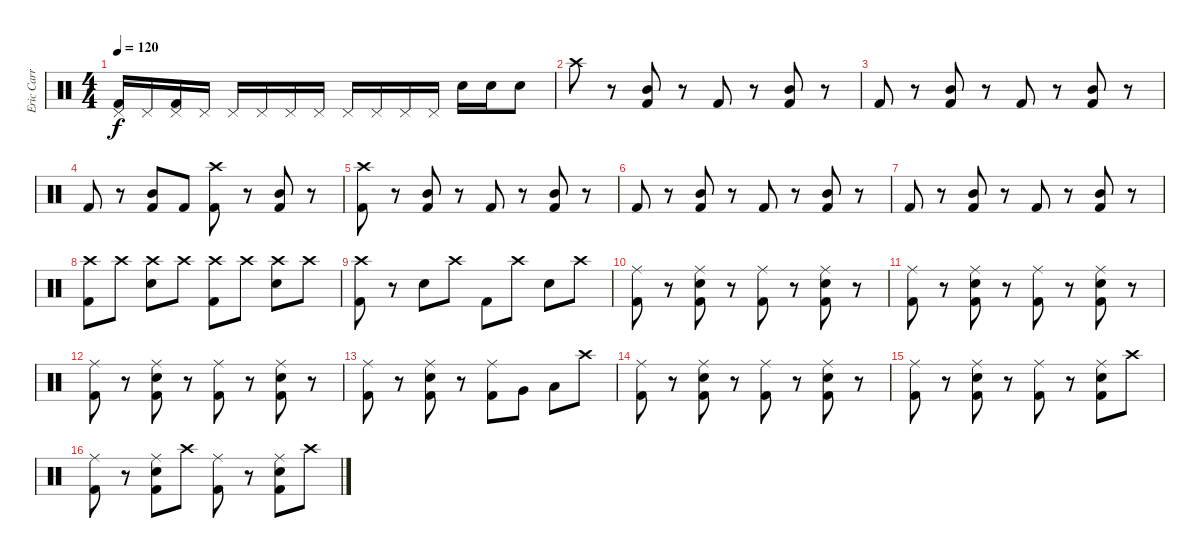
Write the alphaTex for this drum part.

\track ("Eric Carr" "Eric Carr") {instrument percussion}
\staff {score}
\articulation defaults
\ts (4 4)
\tempo 120
\clef neutral
\ks c
("Kick (hit) 2" "Pedal Hi-Hat (hit)").16{dy f} "Pedal Hi-Hat (hit)".16 ("Kick (hit) 2" "Pedal Hi-Hat (hit)").16 "Pedal Hi-Hat (hit)".16 "Pedal Hi-Hat (hit)".16 "Pedal Hi-Hat (hit)".16 "Pedal Hi-Hat (hit)".16 "Pedal Hi-Hat (hit)".16 "Pedal Hi-Hat (hit)".16 "Pedal Hi-Hat (hit)".16 "Pedal Hi-Hat (hit)".16 "Pedal Hi-Hat (hit)".16 "Snare (hit) 2".16 "Snare (hit) 2".16 "Snare (hit) 2".8 |
"Crash high (hit)".8 r.8 ("Kick (hit) 2" "Mid Tom (hit)").8 r.8 "Kick (hit) 2".8 r.8 ("Kick (hit) 2" "Mid Tom (hit)").8 r.8 |
"Kick (hit) 2".8 r.8 ("Kick (hit) 2" "Mid Tom (hit)").8 r.8 "Kick (hit) 2".8 r.8 ("Kick (hit) 2" "Mid Tom (hit)").8 r.8 |
"Kick (hit) 2".8 r.8 ("Kick (hit) 2" "Mid Tom (hit)").8 "Kick (hit) 2".8 ("Kick (hit) 2" "Crash high (hit)").8 r.8 ("Kick (hit) 2" "Mid Tom (hit)").8 r.8 |
("Crash high (hit)" "Kick (hit) 2").8 r.8 ("Kick (hit) 2" "Mid Tom (hit)").8 r.8 "Kick (hit) 2".8 r.8 ("Kick (hit) 2" "Mid Tom (hit)").8 r.8 |
"Kick (hit) 2".8 r.8 ("Kick (hit) 2" "Mid Tom (hit)").8 r.8 "Kick (hit) 2".8 r.8 ("Kick (hit) 2" "Mid Tom (hit)").8 r.8 |
"Kick (hit) 2".8 r.8 ("Kick (hit) 2" "Mid Tom (hit)").8 r.8 "Kick (hit) 2".8 r.8 ("Kick (hit) 2" "Mid Tom (hit)").8 r.8 |
("Kick (hit) 2" "Crash high (hit)").8 "Crash high (hit)".8 ("Snare (hit) 2" "Crash high (hit)").8 "Crash high (hit)".8 ("Kick (hit) 2" "Crash high (hit)").8 "Crash high (hit)".8 ("Snare (hit) 2" "Crash high (hit)").8 "Crash high (hit)".8 |
("Kick (hit) 2" "Crash high (hit)").8 r.8 "Snare (hit) 2".8 "Crash high (hit)".8 "Kick (hit) 2".8 "Crash high (hit)".8 "Snare (hit) 2".8 "Crash high (hit)".8 |
("Kick (hit) 2" "Ride (middle)").8 r.8 ("Kick (hit) 2" "Ride (middle)" "Snare (hit) 2").8 r.8 ("Kick (hit) 2" "Ride (middle)").8 r.8 ("Kick (hit) 2" "Ride (middle)" "Snare (hit) 2").8 r.8 |
("Kick (hit) 2" "Ride (middle)").8 r.8 ("Kick (hit) 2" "Ride (middle)" "Snare (hit) 2").8 r.8 ("Kick (hit) 2" "Ride (middle)").8 r.8 ("Kick (hit) 2" "Ride (middle)" "Snare (hit) 2").8 r.8 |
("Kick (hit) 2" "Ride (middle)").8 r.8 ("Kick (hit) 2" "Ride (middle)" "Snare (hit) 2").8 r.8 ("Kick (hit) 2" "Ride (middle)").8 r.8 ("Kick (hit) 2" "Ride (middle)" "Snare (hit) 2").8 r.8 |
("Kick (hit) 2" "Ride (middle)").8 r.8 ("Kick (hit) 2" "Ride (middle)" "Snare (hit) 2").8 r.8 ("Kick (hit) 2" "Ride (middle)").8 "Very Low Tom (hit)".8 "Low Tom (hit)".8 "Crash high (hit)".8 |
("Kick (hit) 2" "Ride (middle)").8 r.8 ("Kick (hit) 2" "Ride (middle)" "Snare (hit) 2").8 r.8 ("Kick (hit) 2" "Ride (middle)").8 r.8 ("Kick (hit) 2" "Ride (middle)" "Snare (hit) 2").8 r.8 |
("Kick (hit) 2" "Ride (middle)").8 r.8 ("Kick (hit) 2" "Ride (middle)" "Snare (hit) 2").8 r.8 ("Kick (hit) 2" "Ride (middle)").8 r.8 ("Kick (hit) 2" "Ride (middle)" "Snare (hit) 2").8 "Crash high (hit)".8 |
("Kick (hit) 2" "Ride (middle)").8 r.8 ("Kick (hit) 2" "Ride (middle)" "Snare (hit) 2").8 "Crash high (hit)".8 ("Kick (hit) 2" "Ride (middle)").8 r.8 ("Kick (hit) 2" "Ride (middle)" "Snare (hit) 2").8 "Crash high (hit)".8
